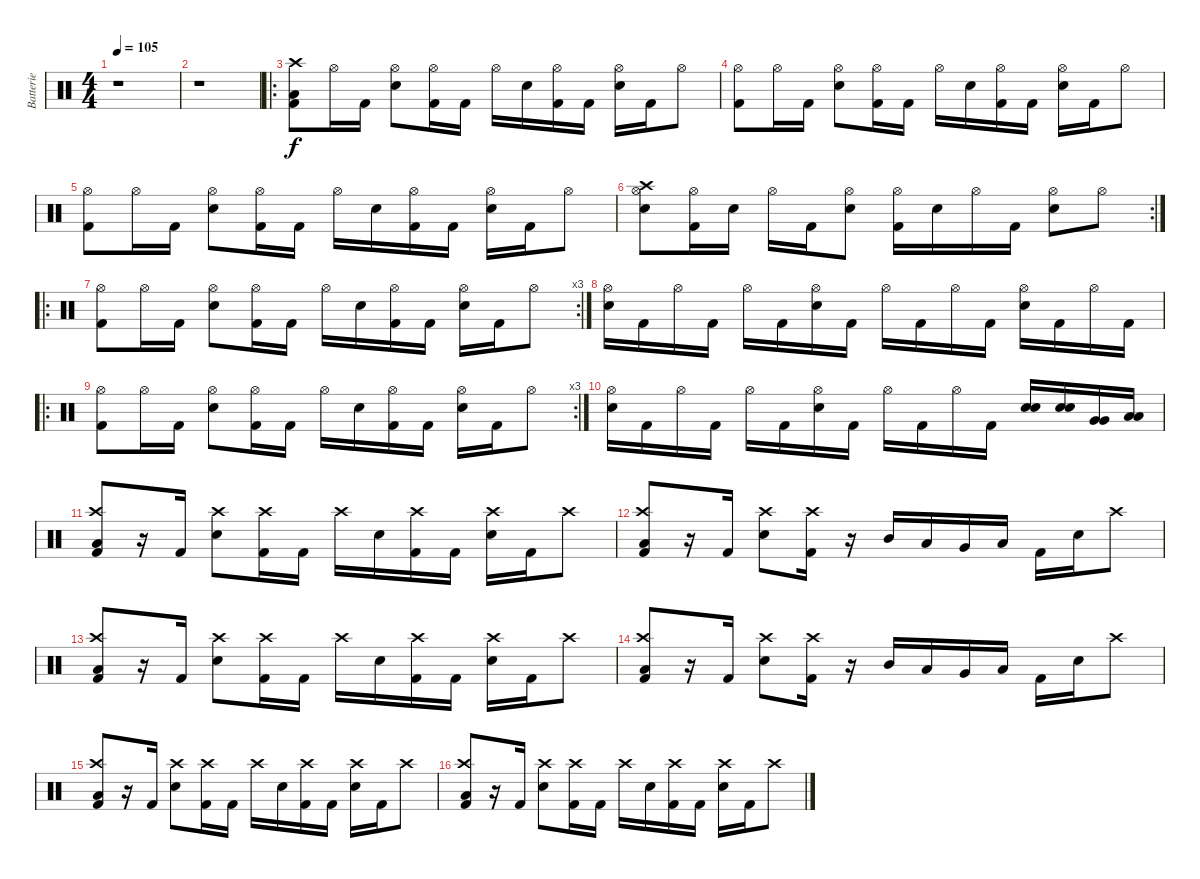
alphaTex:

\track ("Batterie" "Batterie") {instrument percussion}
\staff {score}
\articulation defaults
\ts (4 4)
\tempo 105
\clef neutral
\ks c
r.1{dy f} |
r.1 |
\ro
("Low Floor Tom (hit)" "Crash high (hit)" "Kick (hit) 2").8 "Hi-Hat (open)".16 "Kick (hit) 2".16 ("Hi-Hat (open)" "Electric Snare (hit)").8 ("Hi-Hat (open)" "Kick (hit) 2").16 "Kick (hit) 2".16 "Hi-Hat (open)".16 "Electric Snare (hit)".16 ("Hi-Hat (open)" "Kick (hit) 2").16 "Kick (hit) 2".16 ("Hi-Hat (open)" "Electric Snare (hit)").16 "Kick (hit) 2".16 "Hi-Hat (open)".8 |
("Hi-Hat (open)" "Kick (hit) 2").8 "Hi-Hat (open)".16 "Kick (hit) 2".16 ("Hi-Hat (open)" "Electric Snare (hit)").8 ("Hi-Hat (open)" "Kick (hit) 2").16 "Kick (hit) 2".16 "Hi-Hat (open)".16 "Electric Snare (hit)".16 ("Hi-Hat (open)" "Kick (hit) 2").16 "Kick (hit) 2".16 ("Hi-Hat (open)" "Electric Snare (hit)").16 "Kick (hit) 2".16 "Hi-Hat (open)".8 |
("Hi-Hat (open)" "Kick (hit) 2").8 "Hi-Hat (open)".16 "Kick (hit) 2".16 ("Hi-Hat (open)" "Electric Snare (hit)").8 ("Hi-Hat (open)" "Kick (hit) 2").16 "Kick (hit) 2".16 "Hi-Hat (open)".16 "Electric Snare (hit)".16 ("Hi-Hat (open)" "Kick (hit) 2").16 "Kick (hit) 2".16 ("Hi-Hat (open)" "Electric Snare (hit)").16 "Kick (hit) 2".16 "Hi-Hat (open)".8 |
\rc 2
("Hi-Hat (open)" "Crash high (hit)" "Electric Snare (hit)").8 ("Hi-Hat (open)" "Kick (hit) 2").16 "Electric Snare (hit)".16 "Hi-Hat (open)".16 "Kick (hit) 2".16 ("Hi-Hat (open)" "Electric Snare (hit)").8 ("Hi-Hat (open)" "Kick (hit) 2").16 "Electric Snare (hit)".16 "Hi-Hat (open)".16 "Kick (hit) 2".16 ("Hi-Hat (open)" "Electric Snare (hit)").8 "Hi-Hat (open)".8 |
\ro
\rc 3
("Hi-Hat (open)" "Kick (hit) 2").8 "Hi-Hat (open)".16 "Kick (hit) 2".16 ("Hi-Hat (open)" "Electric Snare (hit)").8 ("Hi-Hat (open)" "Kick (hit) 2").16 "Kick (hit) 2".16 "Hi-Hat (open)".16 "Electric Snare (hit)".16 ("Hi-Hat (open)" "Kick (hit) 2").16 "Kick (hit) 2".16 ("Hi-Hat (open)" "Electric Snare (hit)").16 "Kick (hit) 2".16 "Hi-Hat (open)".8 |
("Hi-Hat (open)" "Electric Snare (hit)").16 "Kick (hit) 2".16 "Hi-Hat (open)".16 "Kick (hit) 2".16 "Hi-Hat (open)".16 "Kick (hit) 2".16 ("Hi-Hat (open)" "Electric Snare (hit)").16 "Kick (hit) 2".16 "Hi-Hat (open)".16 "Kick (hit) 2".16 "Hi-Hat (open)".16 "Kick (hit) 2".16 ("Hi-Hat (open)" "Electric Snare (hit)").16 "Kick (hit) 2".16 "Hi-Hat (open)".16 "Kick (hit) 2".16 |
\ro
\rc 3
("Hi-Hat (open)" "Kick (hit) 2").8 "Hi-Hat (open)".16 "Kick (hit) 2".16 ("Hi-Hat (open)" "Electric Snare (hit)").8 ("Hi-Hat (open)" "Kick (hit) 2").16 "Kick (hit) 2".16 "Hi-Hat (open)".16 "Electric Snare (hit)".16 ("Hi-Hat (open)" "Kick (hit) 2").16 "Kick (hit) 2".16 ("Hi-Hat (open)" "Electric Snare (hit)").16 "Kick (hit) 2".16 "Hi-Hat (open)".8 |
("Hi-Hat (open)" "Electric Snare (hit)").16 "Kick (hit) 2".16 "Hi-Hat (open)".16 "Kick (hit) 2".16 "Hi-Hat (open)".16 "Kick (hit) 2".16 ("Hi-Hat (open)" "Electric Snare (hit)").16 "Kick (hit) 2".16 "Hi-Hat (open)".16 "Kick (hit) 2".16 "Hi-Hat (open)".16 "Kick (hit) 2".16 ("Electric Snare (hit)" "Electric Snare (hit)").16 ("Electric Snare (hit)" "Electric Snare (hit)").16 ("Very Low Tom (hit)" "Very Low Tom (hit)").16 ("Low Floor Tom (hit)" "Low Floor Tom (hit)").16 |
("Low Floor Tom (hit)" "Crash high (hit)" "Kick (hit) 2").8 r.16 "Kick (hit) 2".16 ("Crash high (hit)" "Electric Snare (hit)").8 ("Crash high (hit)" "Kick (hit) 2").16 "Kick (hit) 2".16 "Crash high (hit)".16 "Electric Snare (hit)".16 ("Crash high (hit)" "Kick (hit) 2").16 "Kick (hit) 2".16 ("Crash high (hit)" "Electric Snare (hit)").16 "Kick (hit) 2".16 "Crash high (hit)".8 |
("Low Floor Tom (hit)" "Crash high (hit)" "Kick (hit) 2").8 r.16 "Kick (hit) 2".16 ("Crash high (hit)" "Electric Snare (hit)").8 ("Crash high (hit)" "Kick (hit) 2").16 r.16 "Mid Tom (hit)".16 "Low Tom (hit)".16 "Very Low Tom (hit)".16 "Low Floor Tom (hit)".16 "Kick (hit) 2".16 "Electric Snare (hit)".16 "Crash high (hit)".8 |
("Low Floor Tom (hit)" "Crash high (hit)" "Kick (hit) 2").8 r.16 "Kick (hit) 2".16 ("Crash high (hit)" "Electric Snare (hit)").8 ("Crash high (hit)" "Kick (hit) 2").16 "Kick (hit) 2".16 "Crash high (hit)".16 "Electric Snare (hit)".16 ("Crash high (hit)" "Kick (hit) 2").16 "Kick (hit) 2".16 ("Crash high (hit)" "Electric Snare (hit)").16 "Kick (hit) 2".16 "Crash high (hit)".8 |
("Low Floor Tom (hit)" "Crash high (hit)" "Kick (hit) 2").8 r.16 "Kick (hit) 2".16 ("Crash high (hit)" "Electric Snare (hit)").8 ("Crash high (hit)" "Kick (hit) 2").16 r.16 "Mid Tom (hit)".16 "Low Tom (hit)".16 "Very Low Tom (hit)".16 "Low Floor Tom (hit)".16 "Kick (hit) 2".16 "Electric Snare (hit)".16 "Crash high (hit)".8 |
("Low Floor Tom (hit)" "Crash high (hit)" "Kick (hit) 2").8 r.16 "Kick (hit) 2".16 ("Crash high (hit)" "Electric Snare (hit)").8 ("Crash high (hit)" "Kick (hit) 2").16 "Kick (hit) 2".16 "Crash high (hit)".16 "Electric Snare (hit)".16 ("Crash high (hit)" "Kick (hit) 2").16 "Kick (hit) 2".16 ("Crash high (hit)" "Electric Snare (hit)").16 "Kick (hit) 2".16 "Crash high (hit)".8 |
("Low Floor Tom (hit)" "Crash high (hit)" "Kick (hit) 2").8 r.16 "Kick (hit) 2".16 ("Crash high (hit)" "Electric Snare (hit)").8 ("Crash high (hit)" "Kick (hit) 2").16 "Kick (hit) 2".16 "Crash high (hit)".16 "Electric Snare (hit)".16 ("Crash high (hit)" "Kick (hit) 2").16 "Kick (hit) 2".16 ("Crash high (hit)" "Electric Snare (hit)").16 "Kick (hit) 2".16 "Crash high (hit)".8
